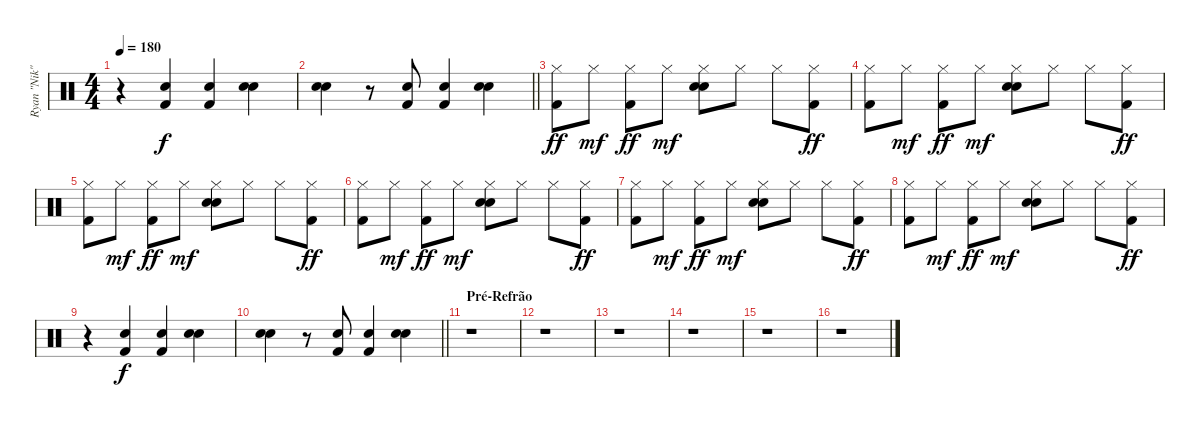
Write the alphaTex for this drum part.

\track ("Ryan \"Nik\"" "Ryan \"Nik\"") {instrument percussion}
\staff {score}
\articulation defaults
\ts (4 4)
\tempo 180
\clef neutral
\ks c
r.4{dy mf} ("Electric Snare (hit)" "Kick (hit) 2").4{dy f} ("Electric Snare (hit)" "Kick (hit) 2").4 ("Electric Snare (hit)" "Electric Snare (hit)").4 |
\barLineRight lightlight
("Electric Snare (hit)" "Electric Snare (hit)").4 r.8 ("Electric Snare (hit)" "Kick (hit) 2").8 ("Electric Snare (hit)" "Kick (hit) 2").4 ("Electric Snare (hit)" "Electric Snare (hit)").4 |
("Hi-Hat (closed)" "Kick (hit) 2").8{dy ff} "Hi-Hat (closed)".8{dy mf} ("Hi-Hat (closed)" "Kick (hit) 2").8{dy ff} "Hi-Hat (closed)".8{dy mf} ("Hi-Hat (closed)" "Electric Snare (hit)" "Electric Snare (hit)").8 "Hi-Hat (closed)".8 "Hi-Hat (closed)".8 ("Hi-Hat (closed)" "Kick (hit) 2").8{dy ff} |
("Hi-Hat (closed)" "Kick (hit) 2").8 "Hi-Hat (closed)".8{dy mf} ("Hi-Hat (closed)" "Kick (hit) 2").8{dy ff} "Hi-Hat (closed)".8{dy mf} ("Hi-Hat (closed)" "Electric Snare (hit)" "Electric Snare (hit)").8 "Hi-Hat (closed)".8 "Hi-Hat (closed)".8 ("Hi-Hat (closed)" "Kick (hit) 2").8{dy ff} |
("Hi-Hat (closed)" "Kick (hit) 2").8 "Hi-Hat (closed)".8{dy mf} ("Hi-Hat (closed)" "Kick (hit) 2").8{dy ff} "Hi-Hat (closed)".8{dy mf} ("Hi-Hat (closed)" "Electric Snare (hit)" "Electric Snare (hit)").8 "Hi-Hat (closed)".8 "Hi-Hat (closed)".8 ("Hi-Hat (closed)" "Kick (hit) 2").8{dy ff} |
("Hi-Hat (closed)" "Kick (hit) 2").8 "Hi-Hat (closed)".8{dy mf} ("Hi-Hat (closed)" "Kick (hit) 2").8{dy ff} "Hi-Hat (closed)".8{dy mf} ("Hi-Hat (closed)" "Electric Snare (hit)" "Electric Snare (hit)").8 "Hi-Hat (closed)".8 "Hi-Hat (closed)".8 ("Hi-Hat (closed)" "Kick (hit) 2").8{dy ff} |
("Hi-Hat (closed)" "Kick (hit) 2").8 "Hi-Hat (closed)".8{dy mf} ("Hi-Hat (closed)" "Kick (hit) 2").8{dy ff} "Hi-Hat (closed)".8{dy mf} ("Hi-Hat (closed)" "Electric Snare (hit)" "Electric Snare (hit)").8 "Hi-Hat (closed)".8 "Hi-Hat (closed)".8 ("Hi-Hat (closed)" "Kick (hit) 2").8{dy ff} |
("Hi-Hat (closed)" "Kick (hit) 2").8 "Hi-Hat (closed)".8{dy mf} ("Hi-Hat (closed)" "Kick (hit) 2").8{dy ff} "Hi-Hat (closed)".8{dy mf} ("Hi-Hat (closed)" "Electric Snare (hit)" "Electric Snare (hit)").8 "Hi-Hat (closed)".8 "Hi-Hat (closed)".8 ("Hi-Hat (closed)" "Kick (hit) 2").8{dy ff} |
r.4 ("Electric Snare (hit)" "Kick (hit) 2").4{dy f} ("Electric Snare (hit)" "Kick (hit) 2").4 ("Electric Snare (hit)" "Electric Snare (hit)").4 |
\barLineRight lightlight
("Electric Snare (hit)" "Electric Snare (hit)").4 r.8 ("Electric Snare (hit)" "Kick (hit) 2").8 ("Electric Snare (hit)" "Kick (hit) 2").4 ("Electric Snare (hit)" "Electric Snare (hit)").4 |
\section ("" "Pré-Refrão")
r.1 |
r.1 |
r.1 |
r.1 |
r.1 |
r.1
